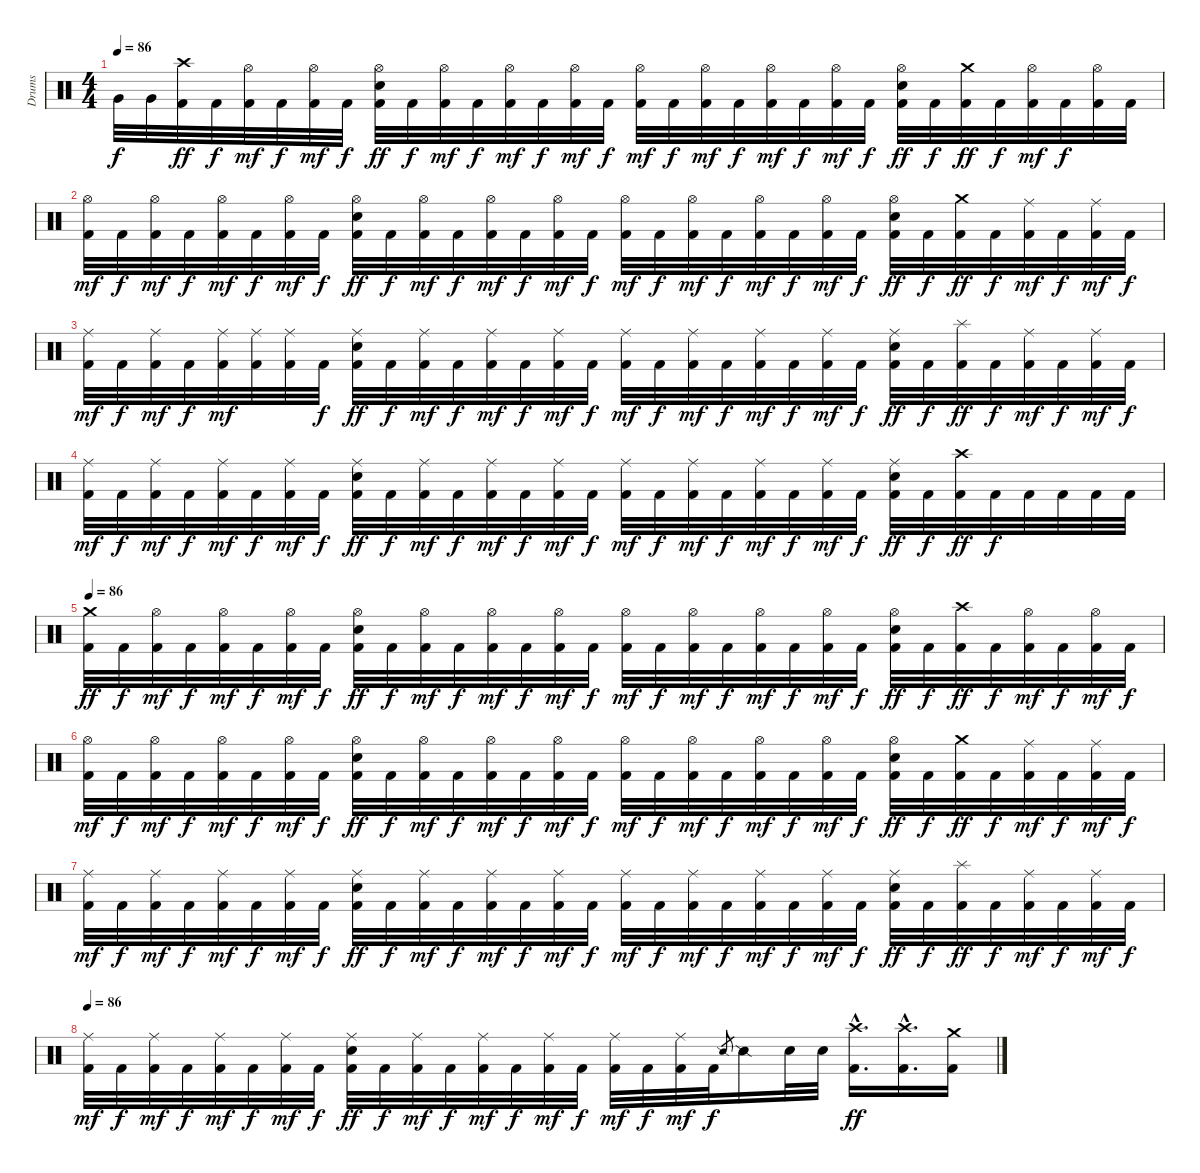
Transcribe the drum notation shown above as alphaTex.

\track ("Drums" "Drums") {instrument percussion}
\staff {score}
\articulation defaults
\ts (4 4)
\tempo 86
\clef neutral
\ks c "Very Low Tom (hit)".32{dy f} "Very Low Tom (hit)".32
("Crash high (hit)" "Kick (hit) 2").32{dy ff} "Kick (hit) 2".32{dy f} ("Hi-Hat (open)" "Kick (hit) 2").32{dy mf} "Kick (hit) 2".32{dy f} ("Hi-Hat (open)" "Kick (hit) 2").32{dy mf} "Kick (hit) 2".32{dy f} ("Hi-Hat (open)" "Electric Snare (hit)" "Kick (hit) 2").32{dy ff} "Kick (hit) 2".32{dy f} ("Hi-Hat (open)" "Kick (hit) 2").32{dy mf} "Kick (hit) 2".32{dy f} ("Hi-Hat (open)" "Kick (hit) 2").32{dy mf} "Kick (hit) 2".32{dy f} ("Hi-Hat (open)" "Kick (hit) 2").32{dy mf} "Kick (hit) 2".32{dy f} ("Hi-Hat (open)" "Kick (hit) 2").32{dy mf} "Kick (hit) 2".32{dy f} ("Hi-Hat (open)" "Kick (hit) 2").32{dy mf} "Kick (hit) 2".32{dy f} ("Hi-Hat (open)" "Kick (hit) 2").32{dy mf} "Kick (hit) 2".32{dy f} ("Hi-Hat (open)" "Kick (hit) 2").32{dy mf} "Kick (hit) 2".32{dy f} ("Hi-Hat (open)" "Electric Snare (hit)" "Kick (hit) 2").32{dy ff} "Kick (hit) 2".32{dy f} ("Crash medium (hit)" "Kick (hit) 2").32{dy ff} "Kick (hit) 2".32{dy f} ("Hi-Hat (open)" "Kick (hit) 2").32{dy mf} "Kick (hit) 2".32{dy f} ("Hi-Hat (open)" "Kick (hit) 2").32 "Kick (hit) 2".32 |
("Hi-Hat (open)" "Kick (hit) 2").32{dy mf} "Kick (hit) 2".32{dy f} ("Hi-Hat (open)" "Kick (hit) 2").32{dy mf} "Kick (hit) 2".32{dy f} ("Hi-Hat (open)" "Kick (hit) 2").32{dy mf} "Kick (hit) 2".32{dy f} ("Hi-Hat (open)" "Kick (hit) 2").32{dy mf} "Kick (hit) 2".32{dy f} ("Hi-Hat (open)" "Electric Snare (hit)" "Kick (hit) 2").32{dy ff} "Kick (hit) 2".32{dy f} ("Hi-Hat (open)" "Kick (hit) 2").32{dy mf} "Kick (hit) 2".32{dy f} ("Hi-Hat (open)" "Kick (hit) 2").32{dy mf} "Kick (hit) 2".32{dy f} ("Hi-Hat (open)" "Kick (hit) 2").32{dy mf} "Kick (hit) 2".32{dy f} ("Hi-Hat (open)" "Kick (hit) 2").32{dy mf} "Kick (hit) 2".32{dy f} ("Hi-Hat (open)" "Kick (hit) 2").32{dy mf} "Kick (hit) 2".32{dy f} ("Hi-Hat (open)" "Kick (hit) 2").32{dy mf} "Kick (hit) 2".32{dy f} ("Hi-Hat (open)" "Kick (hit) 2").32{dy mf} "Kick (hit) 2".32{dy f} ("Hi-Hat (open)" "Electric Snare (hit)" "Kick (hit) 2").32{dy ff} "Kick (hit) 2".32{dy f} ("Crash medium (hit)" "Kick (hit) 2").32{dy ff} "Kick (hit) 2".32{dy f} ("Ride (middle)" "Kick (hit) 2").32{dy mf} "Kick (hit) 2".32{dy f} ("Ride (middle)" "Kick (hit) 2").32{dy mf} "Kick (hit) 2".32{dy f} |
("Ride (middle)" "Kick (hit) 2").32{dy mf} "Kick (hit) 2".32{dy f} ("Ride (middle)" "Kick (hit) 2").32{dy mf} "Kick (hit) 2".32{dy f} ("Ride (middle)" "Kick (hit) 2").32{dy mf} ("Ride (middle)" "Kick (hit) 2").32 ("Ride (middle)" "Kick (hit) 2").32 "Kick (hit) 2".32{dy f} ("Ride (middle)" "Electric Snare (hit)" "Kick (hit) 2").32{dy ff} "Kick (hit) 2".32{dy f} ("Ride (middle)" "Kick (hit) 2").32{dy mf} "Kick (hit) 2".32{dy f} ("Ride (middle)" "Kick (hit) 2").32{dy mf} "Kick (hit) 2".32{dy f} ("Ride (middle)" "Kick (hit) 2").32{dy mf} "Kick (hit) 2".32{dy f} ("Ride (middle)" "Kick (hit) 2").32{dy mf} "Kick (hit) 2".32{dy f} ("Ride (middle)" "Kick (hit) 2").32{dy mf} "Kick (hit) 2".32{dy f} ("Ride (middle)" "Kick (hit) 2").32{dy mf} "Kick (hit) 2".32{dy f} ("Ride (middle)" "Kick (hit) 2").32{dy mf} "Kick (hit) 2".32{dy f} ("Ride (middle)" "Electric Snare (hit)" "Kick (hit) 2").32{dy ff} "Kick (hit) 2".32{dy f} ("Splash (hit)" "Kick (hit) 2").32{dy ff} "Kick (hit) 2".32{dy f} ("Ride (middle)" "Kick (hit) 2").32{dy mf} "Kick (hit) 2".32{dy f} ("Ride (middle)" "Kick (hit) 2").32{dy mf} "Kick (hit) 2".32{dy f} |
("Ride (middle)" "Kick (hit) 2").32{dy mf} "Kick (hit) 2".32{dy f} ("Ride (middle)" "Kick (hit) 2").32{dy mf} "Kick (hit) 2".32{dy f} ("Ride (middle)" "Kick (hit) 2").32{dy mf} "Kick (hit) 2".32{dy f} ("Ride (middle)" "Kick (hit) 2").32{dy mf} "Kick (hit) 2".32{dy f} ("Ride (middle)" "Electric Snare (hit)" "Kick (hit) 2").32{dy ff} "Kick (hit) 2".32{dy f} ("Ride (middle)" "Kick (hit) 2").32{dy mf} "Kick (hit) 2".32{dy f} ("Ride (middle)" "Kick (hit) 2").32{dy mf} "Kick (hit) 2".32{dy f} ("Ride (middle)" "Kick (hit) 2").32{dy mf} "Kick (hit) 2".32{dy f} ("Ride (middle)" "Kick (hit) 2").32{dy mf} "Kick (hit) 2".32{dy f} ("Ride (middle)" "Kick (hit) 2").32{dy mf} "Kick (hit) 2".32{dy f} ("Ride (middle)" "Kick (hit) 2").32{dy mf} "Kick (hit) 2".32{dy f} ("Ride (middle)" "Kick (hit) 2").32{dy mf} "Kick (hit) 2".32{dy f} ("Ride (middle)" "Electric Snare (hit)" "Kick (hit) 2").32{dy ff} "Kick (hit) 2".32{dy f} ("Crash high (hit)" "Kick (hit) 2").32{dy ff} "Kick (hit) 2".32{dy f} "Kick (hit) 2".32 "Kick (hit) 2".32 "Kick (hit) 2".32 "Kick (hit) 2".32 |
\tempo 86
("Crash medium (hit)" "Kick (hit) 2").32{dy ff} "Kick (hit) 2".32{dy f} ("Hi-Hat (open)" "Kick (hit) 2").32{dy mf} "Kick (hit) 2".32{dy f} ("Hi-Hat (open)" "Kick (hit) 2").32{dy mf} "Kick (hit) 2".32{dy f} ("Hi-Hat (open)" "Kick (hit) 2").32{dy mf} "Kick (hit) 2".32{dy f} ("Hi-Hat (open)" "Electric Snare (hit)" "Kick (hit) 2").32{dy ff} "Kick (hit) 2".32{dy f} ("Hi-Hat (open)" "Kick (hit) 2").32{dy mf} "Kick (hit) 2".32{dy f} ("Hi-Hat (open)" "Kick (hit) 2").32{dy mf} "Kick (hit) 2".32{dy f} ("Hi-Hat (open)" "Kick (hit) 2").32{dy mf} "Kick (hit) 2".32{dy f} ("Hi-Hat (open)" "Kick (hit) 2").32{dy mf} "Kick (hit) 2".32{dy f} ("Hi-Hat (open)" "Kick (hit) 2").32{dy mf} "Kick (hit) 2".32{dy f} ("Hi-Hat (open)" "Kick (hit) 2").32{dy mf} "Kick (hit) 2".32{dy f} ("Hi-Hat (open)" "Kick (hit) 2").32{dy mf} "Kick (hit) 2".32{dy f} ("Hi-Hat (open)" "Electric Snare (hit)" "Kick (hit) 2").32{dy ff} "Kick (hit) 2".32{dy f} ("Crash high (hit)" "Kick (hit) 2").32{dy ff} "Kick (hit) 2".32{dy f} ("Hi-Hat (open)" "Kick (hit) 2").32{dy mf} "Kick (hit) 2".32{dy f} ("Hi-Hat (open)" "Kick (hit) 2").32{dy mf} "Kick (hit) 2".32{dy f} |
("Hi-Hat (open)" "Kick (hit) 2").32{dy mf} "Kick (hit) 2".32{dy f} ("Hi-Hat (open)" "Kick (hit) 2").32{dy mf} "Kick (hit) 2".32{dy f} ("Hi-Hat (open)" "Kick (hit) 2").32{dy mf} "Kick (hit) 2".32{dy f} ("Hi-Hat (open)" "Kick (hit) 2").32{dy mf} "Kick (hit) 2".32{dy f} ("Hi-Hat (open)" "Electric Snare (hit)" "Kick (hit) 2").32{dy ff} "Kick (hit) 2".32{dy f} ("Hi-Hat (open)" "Kick (hit) 2").32{dy mf} "Kick (hit) 2".32{dy f} ("Hi-Hat (open)" "Kick (hit) 2").32{dy mf} "Kick (hit) 2".32{dy f} ("Hi-Hat (open)" "Kick (hit) 2").32{dy mf} "Kick (hit) 2".32{dy f} ("Hi-Hat (open)" "Kick (hit) 2").32{dy mf} "Kick (hit) 2".32{dy f} ("Hi-Hat (open)" "Kick (hit) 2").32{dy mf} "Kick (hit) 2".32{dy f} ("Hi-Hat (open)" "Kick (hit) 2").32{dy mf} "Kick (hit) 2".32{dy f} ("Hi-Hat (open)" "Kick (hit) 2").32{dy mf} "Kick (hit) 2".32{dy f} ("Hi-Hat (open)" "Electric Snare (hit)" "Kick (hit) 2").32{dy ff} "Kick (hit) 2".32{dy f} ("Crash medium (hit)" "Kick (hit) 2").32{dy ff} "Kick (hit) 2".32{dy f} ("Ride (middle)" "Kick (hit) 2").32{dy mf} "Kick (hit) 2".32{dy f} ("Ride (middle)" "Kick (hit) 2").32{dy mf} "Kick (hit) 2".32{dy f} |
("Ride (middle)" "Kick (hit) 2").32{dy mf} "Kick (hit) 2".32{dy f} ("Ride (middle)" "Kick (hit) 2").32{dy mf} "Kick (hit) 2".32{dy f} ("Ride (middle)" "Kick (hit) 2").32{dy mf} "Kick (hit) 2".32{dy f} ("Ride (middle)" "Kick (hit) 2").32{dy mf} "Kick (hit) 2".32{dy f} ("Ride (middle)" "Electric Snare (hit)" "Kick (hit) 2").32{dy ff} "Kick (hit) 2".32{dy f} ("Ride (middle)" "Kick (hit) 2").32{dy mf} "Kick (hit) 2".32{dy f} ("Ride (middle)" "Kick (hit) 2").32{dy mf} "Kick (hit) 2".32{dy f} ("Ride (middle)" "Kick (hit) 2").32{dy mf} "Kick (hit) 2".32{dy f} ("Ride (middle)" "Kick (hit) 2").32{dy mf} "Kick (hit) 2".32{dy f} ("Ride (middle)" "Kick (hit) 2").32{dy mf} "Kick (hit) 2".32{dy f} ("Ride (middle)" "Kick (hit) 2").32{dy mf} "Kick (hit) 2".32{dy f} ("Ride (middle)" "Kick (hit) 2").32{dy mf} "Kick (hit) 2".32{dy f} ("Ride (middle)" "Electric Snare (hit)" "Kick (hit) 2").32{dy ff} "Kick (hit) 2".32{dy f} ("Splash (hit)" "Kick (hit) 2").32{dy ff} "Kick (hit) 2".32{dy f} ("Ride (middle)" "Kick (hit) 2").32{dy mf} "Kick (hit) 2".32{dy f} ("Ride (middle)" "Kick (hit) 2").32{dy mf} "Kick (hit) 2".32{dy f} |
\tempo 86
("Ride (middle)" "Kick (hit) 2").32{dy mf} "Kick (hit) 2".32{dy f} ("Ride (middle)" "Kick (hit) 2").32{dy mf} "Kick (hit) 2".32{dy f} ("Ride (middle)" "Kick (hit) 2").32{dy mf} "Kick (hit) 2".32{dy f} ("Ride (middle)" "Kick (hit) 2").32{dy mf} "Kick (hit) 2".32{dy f} ("Ride (middle)" "Electric Snare (hit)" "Kick (hit) 2").32{dy ff} "Kick (hit) 2".32{dy f} ("Ride (middle)" "Kick (hit) 2").32{dy mf} "Kick (hit) 2".32{dy f} ("Ride (middle)" "Kick (hit) 2").32{dy mf} "Kick (hit) 2".32{dy f} ("Ride (middle)" "Kick (hit) 2").32{dy mf} "Kick (hit) 2".32{dy f} ("Ride (middle)" "Kick (hit) 2").32{dy mf} "Kick (hit) 2".32{dy f} ("Ride (middle)" "Kick (hit) 2").32{dy mf} "Kick (hit) 2".32{dy f} "Snare (side stick) 2".8{gr} "Snare (side stick) 2".16 "Electric Snare (hit)".32 "Electric Snare (hit)".32 ("Crash high (hit)"{hac} "Kick (hit) 2"{hac}).16{d dy ff} ("Crash high (hit)"{hac} "Kick (hit) 2"{hac}).16{d} ("Crash medium (hit)" "Kick (hit) 2").16
